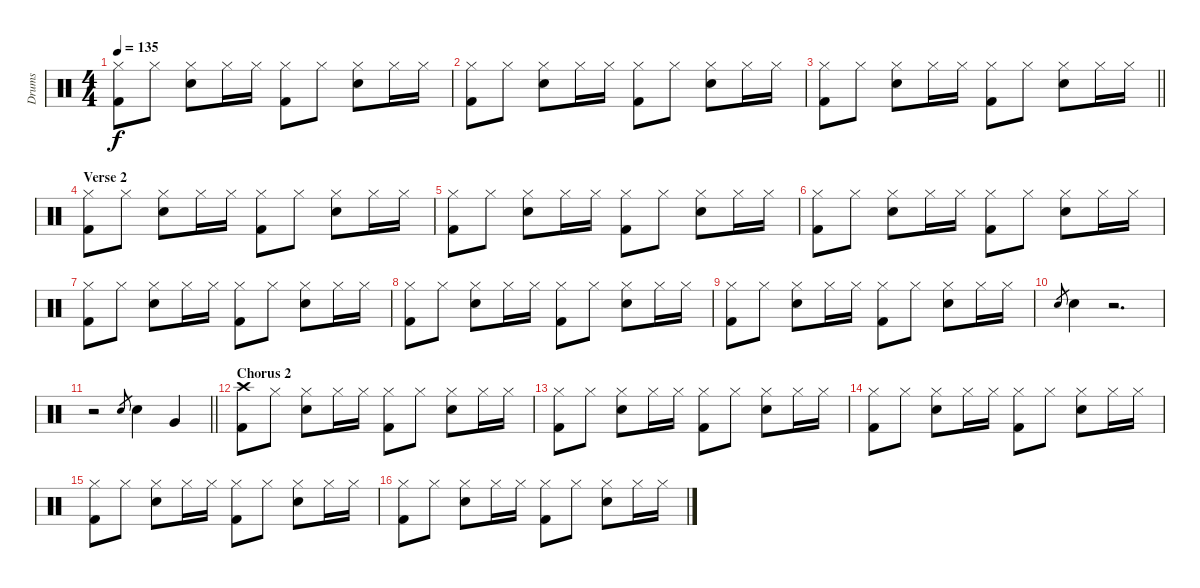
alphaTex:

\track ("Drums" "Drums") {instrument percussion}
\staff {score}
\articulation defaults
\ts (4 4)
\tempo 135
\clef neutral
\ks c
("Hi-Hat (closed)" "Kick (hit) 2").8{dy f} "Hi-Hat (closed)".8 ("Hi-Hat (closed)" "Snare (hit) 2").8 "Hi-Hat (closed)".16 "Hi-Hat (closed)".16 ("Hi-Hat (closed)" "Kick (hit) 2").8 "Hi-Hat (closed)".8 ("Hi-Hat (closed)" "Snare (hit) 2").8 "Hi-Hat (closed)".16 "Hi-Hat (closed)".16 |
("Hi-Hat (closed)" "Kick (hit) 2").8 "Hi-Hat (closed)".8 ("Hi-Hat (closed)" "Snare (hit) 2").8 "Hi-Hat (closed)".16 "Hi-Hat (closed)".16 ("Hi-Hat (closed)" "Kick (hit) 2").8 "Hi-Hat (closed)".8 ("Hi-Hat (closed)" "Snare (hit) 2").8 "Hi-Hat (closed)".16 "Hi-Hat (closed)".16 |
\barLineRight lightlight
("Hi-Hat (closed)" "Kick (hit) 2").8 "Hi-Hat (closed)".8 ("Hi-Hat (closed)" "Snare (hit) 2").8 "Hi-Hat (closed)".16 "Hi-Hat (closed)".16 ("Hi-Hat (closed)" "Kick (hit) 2").8 "Hi-Hat (closed)".8 ("Hi-Hat (closed)" "Snare (hit) 2").8 "Hi-Hat (closed)".16 "Hi-Hat (closed)".16 |
\section ("" "Verse 2")
("Hi-Hat (closed)" "Kick (hit) 2").8 "Hi-Hat (closed)".8 ("Hi-Hat (closed)" "Snare (hit) 2").8 "Hi-Hat (closed)".16 "Hi-Hat (closed)".16 ("Hi-Hat (closed)" "Kick (hit) 2").8 "Hi-Hat (closed)".8 ("Hi-Hat (closed)" "Snare (hit) 2").8 "Hi-Hat (closed)".16 "Hi-Hat (closed)".16 |
("Hi-Hat (closed)" "Kick (hit) 2").8 "Hi-Hat (closed)".8 ("Hi-Hat (closed)" "Snare (hit) 2").8 "Hi-Hat (closed)".16 "Hi-Hat (closed)".16 ("Hi-Hat (closed)" "Kick (hit) 2").8 "Hi-Hat (closed)".8 ("Hi-Hat (closed)" "Snare (hit) 2").8 "Hi-Hat (closed)".16 "Hi-Hat (closed)".16 |
("Hi-Hat (closed)" "Kick (hit) 2").8 "Hi-Hat (closed)".8 ("Hi-Hat (closed)" "Snare (hit) 2").8 "Hi-Hat (closed)".16 "Hi-Hat (closed)".16 ("Hi-Hat (closed)" "Kick (hit) 2").8 "Hi-Hat (closed)".8 ("Hi-Hat (closed)" "Snare (hit) 2").8 "Hi-Hat (closed)".16 "Hi-Hat (closed)".16 |
("Hi-Hat (closed)" "Kick (hit) 2").8 "Hi-Hat (closed)".8 ("Hi-Hat (closed)" "Snare (hit) 2").8 "Hi-Hat (closed)".16 "Hi-Hat (closed)".16 ("Hi-Hat (closed)" "Kick (hit) 2").8 "Hi-Hat (closed)".8 ("Hi-Hat (closed)" "Snare (hit) 2").8 "Hi-Hat (closed)".16 "Hi-Hat (closed)".16 |
("Hi-Hat (closed)" "Kick (hit) 2").8 "Hi-Hat (closed)".8 ("Hi-Hat (closed)" "Snare (hit) 2").8 "Hi-Hat (closed)".16 "Hi-Hat (closed)".16 ("Hi-Hat (closed)" "Kick (hit) 2").8 "Hi-Hat (closed)".8 ("Hi-Hat (closed)" "Snare (hit) 2").8 "Hi-Hat (closed)".16 "Hi-Hat (closed)".16 |
("Hi-Hat (closed)" "Kick (hit) 2").8 "Hi-Hat (closed)".8 ("Hi-Hat (closed)" "Snare (hit) 2").8 "Hi-Hat (closed)".16 "Hi-Hat (closed)".16 ("Hi-Hat (closed)" "Kick (hit) 2").8 "Hi-Hat (closed)".8 ("Hi-Hat (closed)" "Snare (hit) 2").8 "Hi-Hat (closed)".16 "Hi-Hat (closed)".16 |
"Snare (hit) 2".8{gr} "Snare (hit) 2".4 r.2{d} |
\barLineRight lightlight
r.2 "Snare (hit) 2".8{gr} "Snare (hit) 2".4 "Very Low Tom (hit)".4 |
\section ("" "Chorus 2")
("Crash high (hit)" "Kick (hit) 2").8 "Hi-Hat (closed)".8 ("Hi-Hat (closed)" "Snare (hit) 2").8 "Hi-Hat (closed)".16 "Hi-Hat (closed)".16 ("Hi-Hat (closed)" "Kick (hit) 2").8 "Hi-Hat (closed)".8 ("Hi-Hat (closed)" "Snare (hit) 2").8 "Hi-Hat (closed)".16 "Hi-Hat (closed)".16 |
("Hi-Hat (closed)" "Kick (hit) 2").8 "Hi-Hat (closed)".8 ("Hi-Hat (closed)" "Snare (hit) 2").8 "Hi-Hat (closed)".16 "Hi-Hat (closed)".16 ("Hi-Hat (closed)" "Kick (hit) 2").8 "Hi-Hat (closed)".8 ("Hi-Hat (closed)" "Snare (hit) 2").8 "Hi-Hat (closed)".16 "Hi-Hat (closed)".16 |
("Hi-Hat (closed)" "Kick (hit) 2").8 "Hi-Hat (closed)".8 ("Hi-Hat (closed)" "Snare (hit) 2").8 "Hi-Hat (closed)".16 "Hi-Hat (closed)".16 ("Hi-Hat (closed)" "Kick (hit) 2").8 "Hi-Hat (closed)".8 ("Hi-Hat (closed)" "Snare (hit) 2").8 "Hi-Hat (closed)".16 "Hi-Hat (closed)".16 |
("Hi-Hat (closed)" "Kick (hit) 2").8 "Hi-Hat (closed)".8 ("Hi-Hat (closed)" "Snare (hit) 2").8 "Hi-Hat (closed)".16 "Hi-Hat (closed)".16 ("Hi-Hat (closed)" "Kick (hit) 2").8 "Hi-Hat (closed)".8 ("Hi-Hat (closed)" "Snare (hit) 2").8 "Hi-Hat (closed)".16 "Hi-Hat (closed)".16 |
("Hi-Hat (closed)" "Kick (hit) 2").8 "Hi-Hat (closed)".8 ("Hi-Hat (closed)" "Snare (hit) 2").8 "Hi-Hat (closed)".16 "Hi-Hat (closed)".16 ("Hi-Hat (closed)" "Kick (hit) 2").8 "Hi-Hat (closed)".8 ("Hi-Hat (closed)" "Snare (hit) 2").8 "Hi-Hat (closed)".16 "Hi-Hat (closed)".16
